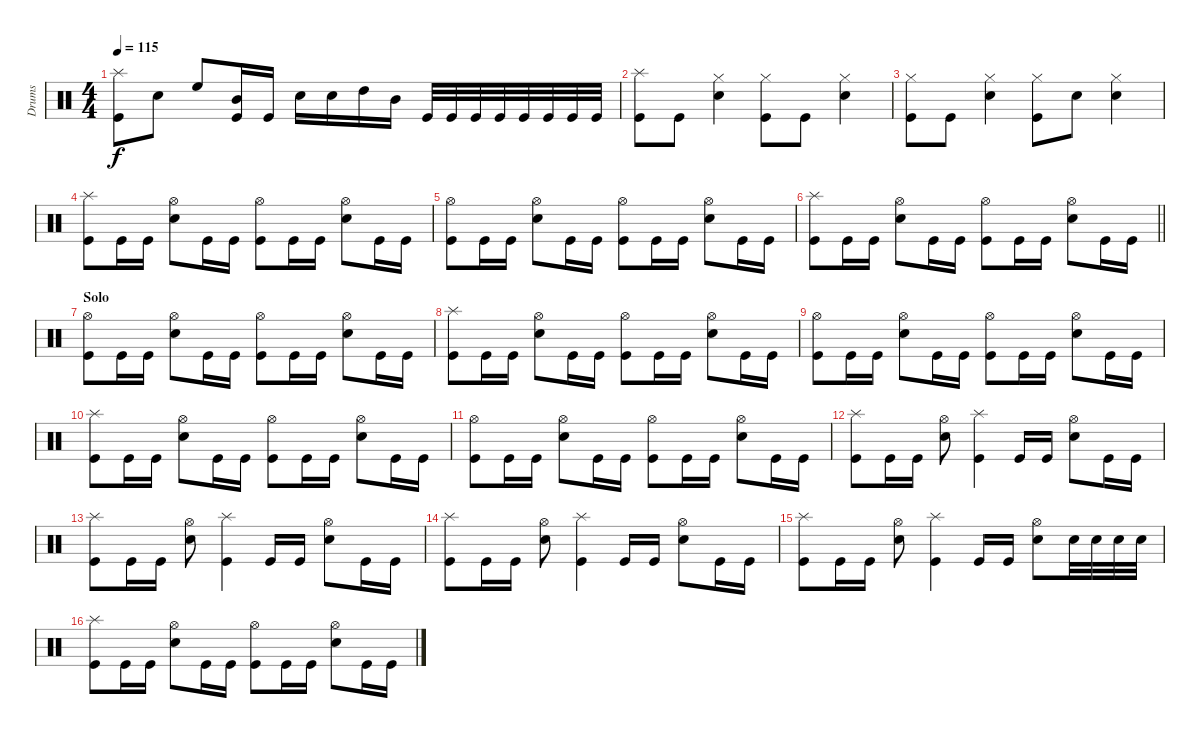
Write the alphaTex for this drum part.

\track ("Drums" "Drums") {instrument percussion}
\staff {score}
\articulation defaults
\ts (4 4)
\tempo 115
\clef neutral
\ks c
("Splash (hit)" "Kick (hit)").8{dy f} "Snare (hit) 2".8 "High Floor Tom (hit)".8 ("Mid Tom (hit)" "Kick (hit)").16 "Kick (hit)".16 "Snare (hit) 2".16 "Snare (hit) 2".16 "High Tom (hit)".16 "Mid Tom (hit)".16 "Kick (hit)".32 "Kick (hit)".32 "Kick (hit)".32 "Kick (hit)".32 "Kick (hit)".32 "Kick (hit)".32 "Kick (hit)".32 "Kick (hit)".32 |
("Splash (hit)" "Kick (hit)").8 "Kick (hit)".8 ("Hi-Hat (closed)" "Snare (hit) 2").4 ("Hi-Hat (closed)" "Kick (hit)").8 "Kick (hit)".8 ("Hi-Hat (closed)" "Snare (hit) 2").4 |
("Hi-Hat (closed)" "Kick (hit)").8 "Kick (hit)".8 ("Hi-Hat (closed)" "Snare (hit) 2").4 ("Hi-Hat (closed)" "Kick (hit)").8 "Snare (hit) 2".8 ("Hi-Hat (closed)" "Snare (hit) 2").4 |
("Splash (hit)" "Kick (hit)").8 "Kick (hit)".16 "Kick (hit)".16 ("Hi-Hat (open)" "Snare (hit) 2").8 "Kick (hit)".16 "Kick (hit)".16 ("Hi-Hat (open)" "Kick (hit)").8 "Kick (hit)".16 "Kick (hit)".16 ("Hi-Hat (open)" "Snare (hit) 2").8 "Kick (hit)".16 "Kick (hit)".16 |
("Hi-Hat (open)" "Kick (hit)").8 "Kick (hit)".16 "Kick (hit)".16 ("Hi-Hat (open)" "Snare (hit) 2").8 "Kick (hit)".16 "Kick (hit)".16 ("Hi-Hat (open)" "Kick (hit)").8 "Kick (hit)".16 "Kick (hit)".16 ("Hi-Hat (open)" "Snare (hit) 2").8 "Kick (hit)".16 "Kick (hit)".16 |
\barLineRight lightlight
("Splash (hit)" "Kick (hit)").8 "Kick (hit)".16 "Kick (hit)".16 ("Hi-Hat (open)" "Snare (hit) 2").8 "Kick (hit)".16 "Kick (hit)".16 ("Hi-Hat (open)" "Kick (hit)").8 "Kick (hit)".16 "Kick (hit)".16 ("Hi-Hat (open)" "Snare (hit) 2").8 "Kick (hit)".16 "Kick (hit)".16 |
\section ("" "Solo")
("Hi-Hat (open)" "Kick (hit)").8 "Kick (hit)".16 "Kick (hit)".16 ("Hi-Hat (open)" "Snare (hit) 2").8 "Kick (hit)".16 "Kick (hit)".16 ("Hi-Hat (open)" "Kick (hit)").8 "Kick (hit)".16 "Kick (hit)".16 ("Hi-Hat (open)" "Snare (hit) 2").8 "Kick (hit)".16 "Kick (hit)".16 |
("Splash (hit)" "Kick (hit)").8 "Kick (hit)".16 "Kick (hit)".16 ("Hi-Hat (open)" "Snare (hit) 2").8 "Kick (hit)".16 "Kick (hit)".16 ("Hi-Hat (open)" "Kick (hit)").8 "Kick (hit)".16 "Kick (hit)".16 ("Hi-Hat (open)" "Snare (hit) 2").8 "Kick (hit)".16 "Kick (hit)".16 |
("Hi-Hat (open)" "Kick (hit)").8 "Kick (hit)".16 "Kick (hit)".16 ("Hi-Hat (open)" "Snare (hit) 2").8 "Kick (hit)".16 "Kick (hit)".16 ("Hi-Hat (open)" "Kick (hit)").8 "Kick (hit)".16 "Kick (hit)".16 ("Hi-Hat (open)" "Snare (hit) 2").8 "Kick (hit)".16 "Kick (hit)".16 |
("Splash (hit)" "Kick (hit)").8 "Kick (hit)".16 "Kick (hit)".16 ("Hi-Hat (open)" "Snare (hit) 2").8 "Kick (hit)".16 "Kick (hit)".16 ("Hi-Hat (open)" "Kick (hit)").8 "Kick (hit)".16 "Kick (hit)".16 ("Hi-Hat (open)" "Snare (hit) 2").8 "Kick (hit)".16 "Kick (hit)".16 |
("Hi-Hat (open)" "Kick (hit)").8 "Kick (hit)".16 "Kick (hit)".16 ("Hi-Hat (open)" "Snare (hit) 2").8 "Kick (hit)".16 "Kick (hit)".16 ("Hi-Hat (open)" "Kick (hit)").8 "Kick (hit)".16 "Kick (hit)".16 ("Hi-Hat (open)" "Snare (hit) 2").8 "Kick (hit)".16 "Kick (hit)".16 |
("Splash (hit)" "Kick (hit)").8 "Kick (hit)".16 "Kick (hit)".16 ("Hi-Hat (open)" "Snare (hit) 2").8 ("Splash (hit)" "Kick (hit)").4 "Kick (hit)".16 "Kick (hit)".16 ("Hi-Hat (open)" "Snare (hit) 2").8 "Kick (hit)".16 "Kick (hit)".16 |
("Splash (hit)" "Kick (hit)").8 "Kick (hit)".16 "Kick (hit)".16 ("Hi-Hat (open)" "Snare (hit) 2").8 ("Splash (hit)" "Kick (hit)").4 "Kick (hit)".16 "Kick (hit)".16 ("Hi-Hat (open)" "Snare (hit) 2").8 "Kick (hit)".16 "Kick (hit)".16 |
("Splash (hit)" "Kick (hit)").8 "Kick (hit)".16 "Kick (hit)".16 ("Hi-Hat (open)" "Snare (hit) 2").8 ("Splash (hit)" "Kick (hit)").4 "Kick (hit)".16 "Kick (hit)".16 ("Hi-Hat (open)" "Snare (hit) 2").8 "Kick (hit)".16 "Kick (hit)".16 |
("Splash (hit)" "Kick (hit)").8 "Kick (hit)".16 "Kick (hit)".16 ("Hi-Hat (open)" "Snare (hit) 2").8 ("Splash (hit)" "Kick (hit)").4 "Kick (hit)".16 "Kick (hit)".16 ("Hi-Hat (open)" "Snare (hit) 2").8 "Snare (hit) 2".32 "Snare (hit) 2".32 "Snare (hit) 2".32 "Snare (hit) 2".32 |
("Splash (hit)" "Kick (hit)").8 "Kick (hit)".16 "Kick (hit)".16 ("Hi-Hat (open)" "Snare (hit) 2").8 "Kick (hit)".16 "Kick (hit)".16 ("Hi-Hat (open)" "Kick (hit)").8 "Kick (hit)".16 "Kick (hit)".16 ("Hi-Hat (open)" "Snare (hit) 2").8 "Kick (hit)".16 "Kick (hit)".16
